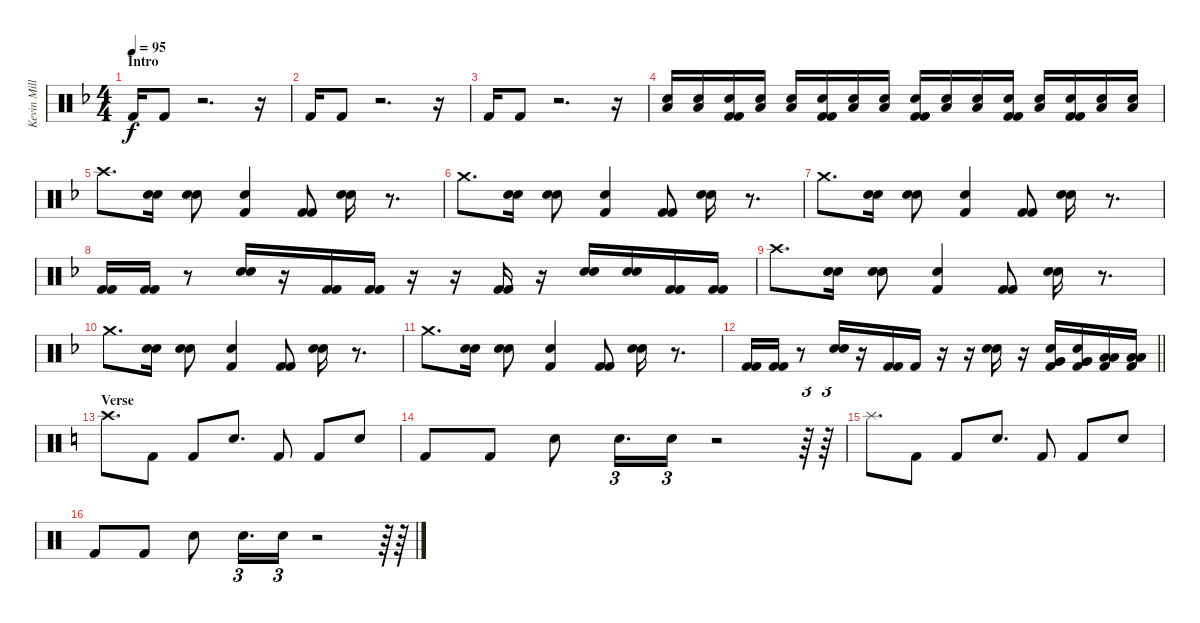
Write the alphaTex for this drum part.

\track ("Kevin Miller (Drums)" "Kevin Mill") {instrument percussion}
\staff {score}
\articulation defaults
\ts (4 4)
\section ("" "Intro")
\tempo 95
\clef neutral
\ks f "Kick (hit) 2".16{dy f} "Kick (hit) 2".8
r.2{d} r.16 |
"Kick (hit) 2".16 "Kick (hit) 2".8 r.2{d} r.16 |
"Kick (hit) 2".16 "Kick (hit) 2".8 r.2{d} r.16 |
("Snare (hit) 2" "Low Tom (hit)").16 ("Snare (hit) 2" "Low Tom (hit)").16 ("Snare (hit) 2" "Kick (hit) 2" "Kick (hit) 2").16 ("Snare (hit) 2" "Low Tom (hit)").16 ("Snare (hit) 2" "Low Tom (hit)").16 ("Snare (hit) 2" "Kick (hit) 2" "Kick (hit) 2").16 ("Snare (hit) 2" "Low Tom (hit)").16 ("Snare (hit) 2" "Low Tom (hit)").16 ("Snare (hit) 2" "Kick (hit) 2" "Kick (hit) 2").16 ("Snare (hit) 2" "Low Tom (hit)").16 ("Snare (hit) 2" "Low Tom (hit)").16 ("Snare (hit) 2" "Kick (hit) 2" "Kick (hit) 2").16 ("Snare (hit) 2" "Low Tom (hit)").16 ("Snare (hit) 2" "Kick (hit) 2" "Kick (hit) 2").16 ("Snare (hit) 2" "Low Tom (hit)").16 ("Snare (hit) 2" "Low Tom (hit)").16 |
"Crash high (hit)".8{d} ("Electric Snare (hit)" "Electric Snare (hit)").16 ("Electric Snare (hit)" "Electric Snare (hit)").8 ("Electric Snare (hit)" "Kick (hit) 2").4 ("Kick (hit) 2" "Kick (hit) 2").8 ("Electric Snare (hit)" "Electric Snare (hit)").16 r.8{d} |
"Crash medium (hit)".8{d} ("Electric Snare (hit)" "Electric Snare (hit)").16 ("Electric Snare (hit)" "Electric Snare (hit)").8 ("Electric Snare (hit)" "Kick (hit) 2").4 ("Kick (hit) 2" "Kick (hit) 2").8 ("Electric Snare (hit)" "Electric Snare (hit)").16 r.8{d} |
"Crash medium (hit)".8{d} ("Electric Snare (hit)" "Electric Snare (hit)").16 ("Electric Snare (hit)" "Electric Snare (hit)").8 ("Electric Snare (hit)" "Kick (hit) 2").4 ("Kick (hit) 2" "Kick (hit) 2").8 ("Electric Snare (hit)" "Electric Snare (hit)").16 r.8{d} |
("Kick (hit) 2" "Kick (hit) 2").16 ("Kick (hit) 2" "Kick (hit) 2").16 r.8 ("Electric Snare (hit)" "Electric Snare (hit)").16 r.16 ("Kick (hit) 2" "Kick (hit) 2").16 ("Kick (hit) 2" "Kick (hit) 2").16 r.16 r.16 ("Kick (hit) 2" "Kick (hit) 2").16 r.16 ("Electric Snare (hit)" "Electric Snare (hit)").16 ("Electric Snare (hit)" "Electric Snare (hit)").16 ("Kick (hit) 2" "Kick (hit) 2").16 ("Kick (hit) 2" "Kick (hit) 2").16 |
"Crash high (hit)".8{d} ("Electric Snare (hit)" "Electric Snare (hit)").16 ("Electric Snare (hit)" "Electric Snare (hit)").8 ("Electric Snare (hit)" "Kick (hit) 2").4 ("Kick (hit) 2" "Kick (hit) 2").8 ("Electric Snare (hit)" "Electric Snare (hit)").16 r.8{d} |
"Crash medium (hit)".8{d} ("Electric Snare (hit)" "Electric Snare (hit)").16 ("Electric Snare (hit)" "Electric Snare (hit)").8 ("Electric Snare (hit)" "Kick (hit) 2").4 ("Kick (hit) 2" "Kick (hit) 2").8 ("Electric Snare (hit)" "Electric Snare (hit)").16 r.8{d} |
"Crash medium (hit)".8{d} ("Electric Snare (hit)" "Electric Snare (hit)").16 ("Electric Snare (hit)" "Electric Snare (hit)").8 ("Electric Snare (hit)" "Kick (hit) 2").4 ("Kick (hit) 2" "Kick (hit) 2").8 ("Electric Snare (hit)" "Electric Snare (hit)").16 r.8{d} |
\barLineRight lightlight
("Kick (hit) 2" "Kick (hit) 2").16 ("Kick (hit) 2" "Kick (hit) 2").16 r.8 ("Electric Snare (hit)" "Electric Snare (hit)").16 r.16 ("Kick (hit) 2" "Kick (hit) 2").16 "Kick (hit) 2".16 r.16 r.16 ("Electric Snare (hit)" "Electric Snare (hit)").16 r.16 ("Kick (hit) 2" "Very Low Tom (hit)" "Very Low Tom (hit)" "Electric Snare (hit)").16 ("Kick (hit) 2" "Very Low Tom (hit)" "Very Low Tom (hit)" "Electric Snare (hit)").16 ("Kick (hit) 2" "Low Tom (hit)" "Low Tom (hit)").16 ("Kick (hit) 2" "Low Tom (hit)" "Low Tom (hit)").16 |
\section ("" "Verse")
\ks c "Crash high (hit)".8{d} "Kick (hit) 2".8 "Kick (hit) 2".8 "Electric Snare (hit)".8{d} "Kick (hit) 2".8 "Kick (hit) 2".8 "Electric Snare (hit)".8
|
"Kick (hit) 2".8 "Kick (hit) 2".8 "Electric Snare (hit)".8 "Electric Snare (hit)".16{d tu (3 2)} "Electric Snare (hit)".16{tu (3 2)} r.2 r.64{tu (3 2)} r.64{tu (3 2)} |
"Splash (hit)".8{d} "Kick (hit) 2".8 "Kick (hit) 2".8 "Electric Snare (hit)".8{d} "Kick (hit) 2".8 "Kick (hit) 2".8 "Electric Snare (hit)".8 |
"Kick (hit) 2".8 "Kick (hit) 2".8 "Electric Snare (hit)".8 "Electric Snare (hit)".16{d tu (3 2)} "Electric Snare (hit)".16{tu (3 2)} r.2 r.64{tu (3 2)} r.64{tu (3 2)}
